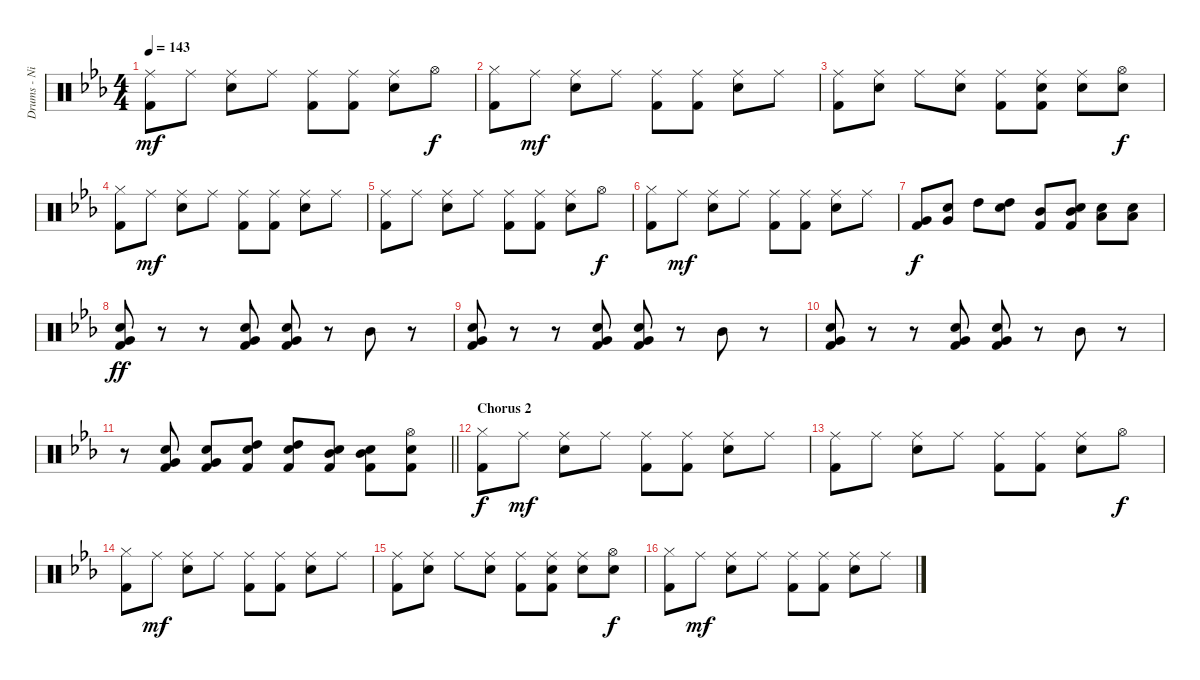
\track ("Drums - Nigel Olsen" "Drums - Ni") {instrument percussion}
\staff {score}
\articulation defaults
\ts (4 4)
\tempo 143
\clef neutral
\ks cminor
("Ride (middle)" "Kick (hit) 2").8{dy mf} "Ride (middle)".8 ("Ride (middle)" "Snare (hit) 2").8 "Ride (middle)".8 ("Ride (middle)" "Kick (hit) 2").8 ("Ride (middle)" "Kick (hit) 2").8 ("Ride (middle)" "Snare (hit) 2").8 "Hi-Hat (open)".8{dy f} |
("Hi-Hat (closed)" "Kick (hit) 2").8 "Ride (middle)".8{dy mf} ("Ride (middle)" "Snare (hit) 2").8 "Ride (middle)".8 ("Ride (middle)" "Kick (hit) 2").8 ("Ride (middle)" "Kick (hit) 2").8 ("Ride (middle)" "Snare (hit) 2").8 "Ride (middle)".8 |
("Ride (middle)" "Kick (hit) 2").8 ("Ride (middle)" "Snare (hit) 2").8 "Ride (middle)".8 ("Ride (middle)" "Snare (hit) 2").8 ("Ride (middle)" "Kick (hit) 2").8 ("Ride (middle)" "Snare (hit) 2" "Kick (hit) 2").8 ("Ride (middle)" "Snare (hit) 2").8 ("Hi-Hat (open)" "Snare (hit) 2").8{dy f} |
("Hi-Hat (closed)" "Kick (hit) 2").8 "Ride (middle)".8{dy mf} ("Ride (middle)" "Snare (hit) 2").8 "Ride (middle)".8 ("Ride (middle)" "Kick (hit) 2").8 ("Ride (middle)" "Kick (hit) 2").8 ("Ride (middle)" "Snare (hit) 2").8 "Ride (middle)".8 |
("Ride (middle)" "Kick (hit) 2").8 "Ride (middle)".8 ("Ride (middle)" "Snare (hit) 2").8 "Ride (middle)".8 ("Ride (middle)" "Kick (hit) 2").8 ("Ride (middle)" "Kick (hit) 2").8 ("Ride (middle)" "Snare (hit) 2").8 "Hi-Hat (open)".8{dy f} |
("Hi-Hat (closed)" "Kick (hit) 2").8 "Ride (middle)".8{dy mf} ("Ride (middle)" "Snare (hit) 2").8 "Ride (middle)".8 ("Ride (middle)" "Kick (hit) 2").8 ("Ride (middle)" "Kick (hit) 2").8 ("Ride (middle)" "Snare (hit) 2").8 "Ride (middle)".8 |
("Very Low Tom (hit)" "Kick (hit) 2").8{dy f} ("Very Low Tom (hit)" "Snare (hit) 2").8 "High Tom (hit)".8 ("High Tom (hit)" "Snare (hit) 2").8 ("Mid Tom (hit)" "Kick (hit) 2").8 ("Mid Tom (hit)" "Snare (hit) 2" "Kick (hit) 2").8 ("Low Tom (hit)" "Snare (hit) 2").8 ("Low Tom (hit)" "Snare (hit) 2").8 |
("Very Low Tom (hit)" "Snare (hit) 2" "Kick (hit) 2").8{dy ff} r.8 r.8 ("Very Low Tom (hit)" "Snare (hit) 2" "Kick (hit) 2").8 ("Very Low Tom (hit)" "Snare (hit) 2" "Kick (hit) 2").8 r.8 "Mid Tom (hit)".8 r.8 |
("Very Low Tom (hit)" "Snare (hit) 2" "Kick (hit) 2").8 r.8 r.8 ("Very Low Tom (hit)" "Snare (hit) 2" "Kick (hit) 2").8 ("Very Low Tom (hit)" "Snare (hit) 2" "Kick (hit) 2").8 r.8 "Mid Tom (hit)".8 r.8 |
("Very Low Tom (hit)" "Snare (hit) 2" "Kick (hit) 2").8 r.8 r.8 ("Very Low Tom (hit)" "Snare (hit) 2" "Kick (hit) 2").8 ("Very Low Tom (hit)" "Snare (hit) 2" "Kick (hit) 2").8 r.8 "Mid Tom (hit)".8 r.8 |
\barLineRight lightlight
r.8 ("Very Low Tom (hit)" "Snare (hit) 2" "Kick (hit) 2").8 ("Very Low Tom (hit)" "Snare (hit) 2" "Kick (hit) 2").8 ("High Tom (hit)" "Snare (hit) 2" "Kick (hit) 2").8 ("High Tom (hit)" "Snare (hit) 2" "Kick (hit) 2").8 ("Mid Tom (hit)" "Snare (hit) 2" "Kick (hit) 2").8 ("Mid Tom (hit)" "Snare (hit) 2" "Kick (hit) 2").8 ("Hi-Hat (open)" "Snare (hit) 2" "Kick (hit) 2").8 |
\section ("" "Chorus 2")
("Hi-Hat (closed)" "Kick (hit) 2").8{dy f} "Ride (middle)".8{dy mf} ("Ride (middle)" "Snare (hit) 2").8 "Ride (middle)".8 ("Ride (middle)" "Kick (hit) 2").8 ("Ride (middle)" "Kick (hit) 2").8 ("Ride (middle)" "Snare (hit) 2").8 "Ride (middle)".8 |
("Ride (middle)" "Kick (hit) 2").8 "Ride (middle)".8 ("Ride (middle)" "Snare (hit) 2").8 "Ride (middle)".8 ("Ride (middle)" "Kick (hit) 2").8 ("Ride (middle)" "Kick (hit) 2").8 ("Ride (middle)" "Snare (hit) 2").8 "Hi-Hat (open)".8{dy f} |
("Hi-Hat (closed)" "Kick (hit) 2").8 "Ride (middle)".8{dy mf} ("Ride (middle)" "Snare (hit) 2").8 "Ride (middle)".8 ("Ride (middle)" "Kick (hit) 2").8 ("Ride (middle)" "Kick (hit) 2").8 ("Ride (middle)" "Snare (hit) 2").8 "Ride (middle)".8 |
("Ride (middle)" "Kick (hit) 2").8 ("Ride (middle)" "Snare (hit) 2").8 "Ride (middle)".8 ("Ride (middle)" "Snare (hit) 2").8 ("Ride (middle)" "Kick (hit) 2").8 ("Ride (middle)" "Snare (hit) 2" "Kick (hit) 2").8 ("Ride (middle)" "Snare (hit) 2").8 ("Hi-Hat (open)" "Snare (hit) 2").8{dy f} |
("Hi-Hat (closed)" "Kick (hit) 2").8 "Ride (middle)".8{dy mf} ("Ride (middle)" "Snare (hit) 2").8 "Ride (middle)".8 ("Ride (middle)" "Kick (hit) 2").8 ("Ride (middle)" "Kick (hit) 2").8 ("Ride (middle)" "Snare (hit) 2").8 "Ride (middle)".8
